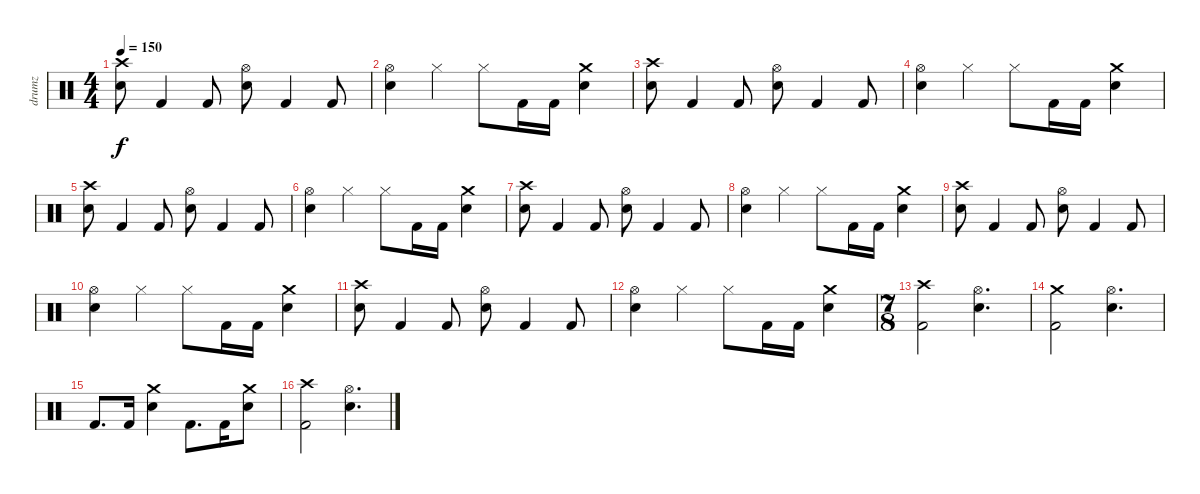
\track ("drumz" "drumz") {instrument percussion}
\staff {score}
\articulation defaults
\ts (4 4)
\tempo 150
\clef neutral
\ks c
("Crash high (hit)" "Electric Snare (hit)").8{dy f} "Kick (hit) 2".4 "Kick (hit) 2".8 ("Hi-Hat (open)" "Electric Snare (hit)").8 "Kick (hit) 2".4 "Kick (hit) 2".8 |
("Hi-Hat (open)" "Electric Snare (hit)").4 "Hi-Hat (closed)".4 "Hi-Hat (closed)".8 "Kick (hit) 2".16 "Kick (hit) 2".16 ("Crash medium (hit)" "Electric Snare (hit)").4 |
("Crash high (hit)" "Electric Snare (hit)").8 "Kick (hit) 2".4 "Kick (hit) 2".8 ("Hi-Hat (open)" "Electric Snare (hit)").8 "Kick (hit) 2".4 "Kick (hit) 2".8 |
("Hi-Hat (open)" "Electric Snare (hit)").4 "Hi-Hat (closed)".4 "Hi-Hat (closed)".8 "Kick (hit) 2".16 "Kick (hit) 2".16 ("Crash medium (hit)" "Electric Snare (hit)").4 |
("Crash high (hit)" "Electric Snare (hit)").8 "Kick (hit) 2".4 "Kick (hit) 2".8 ("Hi-Hat (open)" "Electric Snare (hit)").8 "Kick (hit) 2".4 "Kick (hit) 2".8 |
("Hi-Hat (open)" "Electric Snare (hit)").4 "Hi-Hat (closed)".4 "Hi-Hat (closed)".8 "Kick (hit) 2".16 "Kick (hit) 2".16 ("Crash medium (hit)" "Electric Snare (hit)").4 |
("Crash high (hit)" "Electric Snare (hit)").8 "Kick (hit) 2".4 "Kick (hit) 2".8 ("Hi-Hat (open)" "Electric Snare (hit)").8 "Kick (hit) 2".4 "Kick (hit) 2".8 |
("Hi-Hat (open)" "Electric Snare (hit)").4 "Hi-Hat (closed)".4 "Hi-Hat (closed)".8 "Kick (hit) 2".16 "Kick (hit) 2".16 ("Crash medium (hit)" "Electric Snare (hit)").4 |
("Crash high (hit)" "Electric Snare (hit)").8 "Kick (hit) 2".4 "Kick (hit) 2".8 ("Hi-Hat (open)" "Electric Snare (hit)").8 "Kick (hit) 2".4 "Kick (hit) 2".8 |
("Hi-Hat (open)" "Electric Snare (hit)").4 "Hi-Hat (closed)".4 "Hi-Hat (closed)".8 "Kick (hit) 2".16 "Kick (hit) 2".16 ("Crash medium (hit)" "Electric Snare (hit)").4 |
("Crash high (hit)" "Electric Snare (hit)").8 "Kick (hit) 2".4 "Kick (hit) 2".8 ("Hi-Hat (open)" "Electric Snare (hit)").8 "Kick (hit) 2".4 "Kick (hit) 2".8 |
("Hi-Hat (open)" "Electric Snare (hit)").4 "Hi-Hat (closed)".4 "Hi-Hat (closed)".8 "Kick (hit) 2".16 "Kick (hit) 2".16 ("Crash medium (hit)" "Electric Snare (hit)").4 |
\ts (7 8)
("Crash high (hit)" "Kick (hit) 2").2 ("Hi-Hat (open)" "Electric Snare (hit)").4{d} |
("Crash medium (hit)" "Kick (hit) 2").2 ("Hi-Hat (open)" "Electric Snare (hit)").4{d} |
"Kick (hit) 2".8{d} "Kick (hit) 2".16 ("Crash medium (hit)" "Electric Snare (hit)").4 "Kick (hit) 2".8{d} "Kick (hit) 2".16 ("Crash medium (hit)" "Electric Snare (hit)").8 |
("Crash high (hit)" "Kick (hit) 2").2 ("Hi-Hat (open)" "Electric Snare (hit)").4{d}
